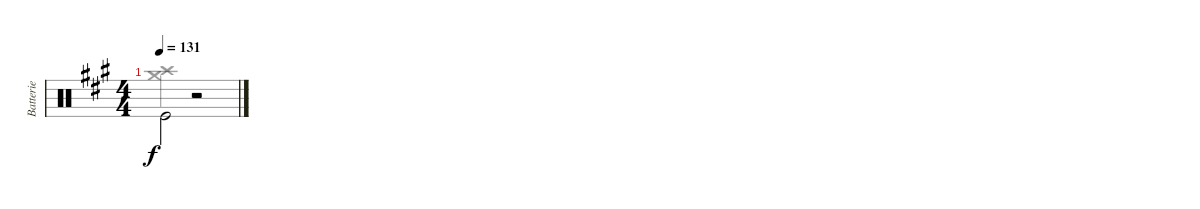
\track ("Batterie" "Batterie") {instrument percussion}
\staff {score}
\articulation defaults
\voice
\ts (4 4)
\tempo 131
\clef neutral
\ks a "Kick (hit)".2{dy f beam Down}
r.2
\voice
\clef neutral
\ottava regular
\simile none
\ks a
("Crash medium (hit)" "Crash high (hit)").2{dy f} r.2
